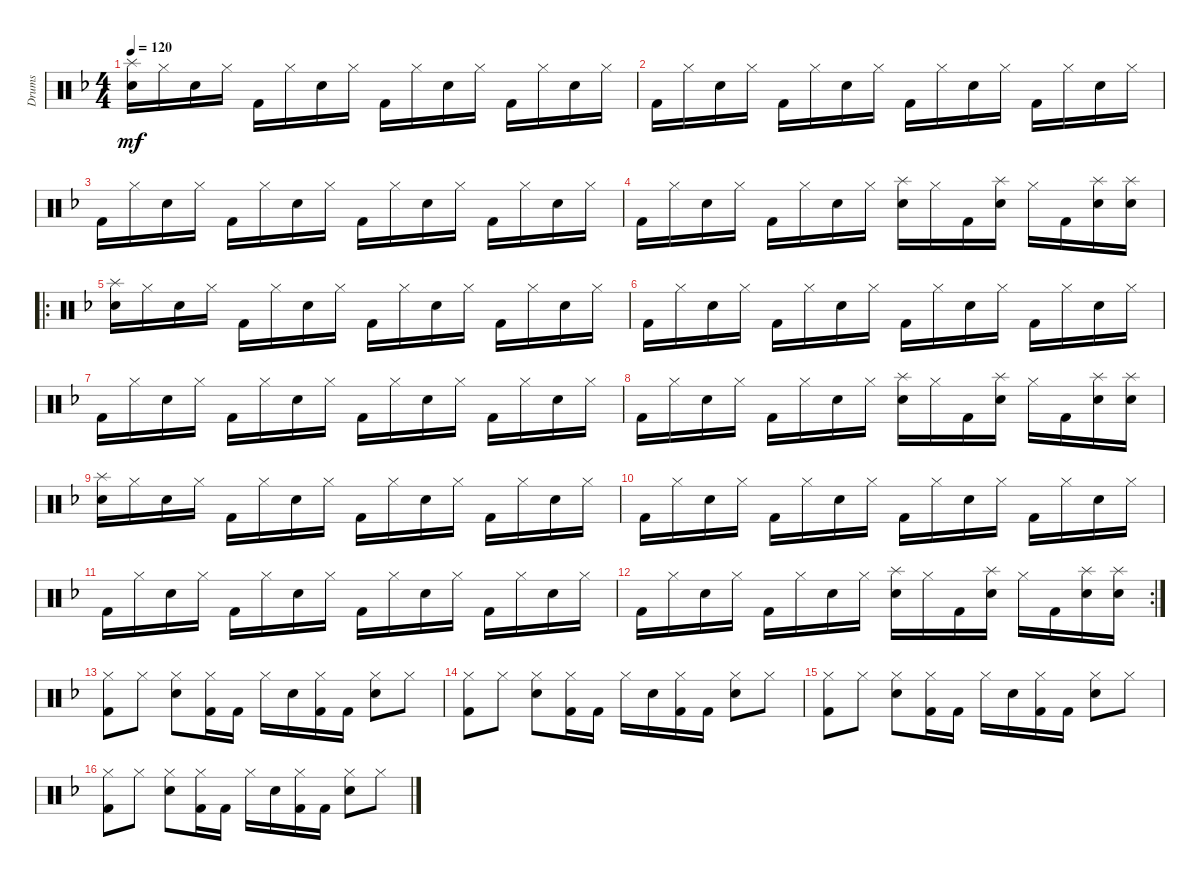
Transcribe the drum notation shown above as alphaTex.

\track ("Drums" "Drums") {instrument percussion}
\staff {score}
\articulation defaults
\ts (4 4)
\tempo 120
\clef neutral
\ks dminor
("Snare (hit) 2" "Splash (hit)").16{dy mf} "Hi-Hat (closed)".16 "Snare (hit) 2".16 "Hi-Hat (closed)".16 "Kick (hit) 2".16 "Hi-Hat (closed)".16 "Snare (hit) 2".16 "Hi-Hat (closed)".16 "Kick (hit) 2".16 "Hi-Hat (closed)".16 "Snare (hit) 2".16 "Hi-Hat (closed)".16 "Kick (hit) 2".16 "Hi-Hat (closed)".16 "Snare (hit) 2".16 "Hi-Hat (closed)".16 |
"Kick (hit) 2".16 "Hi-Hat (closed)".16 "Snare (hit) 2".16 "Hi-Hat (closed)".16 "Kick (hit) 2".16 "Hi-Hat (closed)".16 "Snare (hit) 2".16 "Hi-Hat (closed)".16 "Kick (hit) 2".16 "Hi-Hat (closed)".16 "Snare (hit) 2".16 "Hi-Hat (closed)".16 "Kick (hit) 2".16 "Hi-Hat (closed)".16 "Snare (hit) 2".16 "Hi-Hat (closed)".16 |
"Kick (hit) 2".16 "Hi-Hat (closed)".16 "Snare (hit) 2".16 "Hi-Hat (closed)".16 "Kick (hit) 2".16 "Hi-Hat (closed)".16 "Snare (hit) 2".16 "Hi-Hat (closed)".16 "Kick (hit) 2".16 "Hi-Hat (closed)".16 "Snare (hit) 2".16 "Hi-Hat (closed)".16 "Kick (hit) 2".16 "Hi-Hat (closed)".16 "Snare (hit) 2".16 "Hi-Hat (closed)".16 |
"Kick (hit) 2".16 "Hi-Hat (closed)".16 "Snare (hit) 2".16 "Hi-Hat (closed)".16 "Kick (hit) 2".16 "Hi-Hat (closed)".16 "Snare (hit) 2".16 "Hi-Hat (closed)".16 ("Snare (hit) 2" "Splash (hit)").16 "Hi-Hat (closed)".16 "Kick (hit) 2".16 ("Snare (hit) 2" "Splash (hit)").16 "Hi-Hat (closed)".16 "Kick (hit) 2".16 ("Snare (hit) 2" "Splash (hit)").16 ("Snare (hit) 2" "Splash (hit)").16 |
\ro
\section ("" "")
("Snare (hit) 2" "Splash (hit)").16 "Hi-Hat (closed)".16 "Snare (hit) 2".16 "Hi-Hat (closed)".16 "Kick (hit) 2".16 "Hi-Hat (closed)".16 "Snare (hit) 2".16 "Hi-Hat (closed)".16 "Kick (hit) 2".16 "Hi-Hat (closed)".16 "Snare (hit) 2".16 "Hi-Hat (closed)".16 "Kick (hit) 2".16 "Hi-Hat (closed)".16 "Snare (hit) 2".16 "Hi-Hat (closed)".16 |
"Kick (hit) 2".16 "Hi-Hat (closed)".16 "Snare (hit) 2".16 "Hi-Hat (closed)".16 "Kick (hit) 2".16 "Hi-Hat (closed)".16 "Snare (hit) 2".16 "Hi-Hat (closed)".16 "Kick (hit) 2".16 "Hi-Hat (closed)".16 "Snare (hit) 2".16 "Hi-Hat (closed)".16 "Kick (hit) 2".16 "Hi-Hat (closed)".16 "Snare (hit) 2".16 "Hi-Hat (closed)".16 |
"Kick (hit) 2".16 "Hi-Hat (closed)".16 "Snare (hit) 2".16 "Hi-Hat (closed)".16 "Kick (hit) 2".16 "Hi-Hat (closed)".16 "Snare (hit) 2".16 "Hi-Hat (closed)".16 "Kick (hit) 2".16 "Hi-Hat (closed)".16 "Snare (hit) 2".16 "Hi-Hat (closed)".16 "Kick (hit) 2".16 "Hi-Hat (closed)".16 "Snare (hit) 2".16 "Hi-Hat (closed)".16 |
"Kick (hit) 2".16 "Hi-Hat (closed)".16 "Snare (hit) 2".16 "Hi-Hat (closed)".16 "Kick (hit) 2".16 "Hi-Hat (closed)".16 "Snare (hit) 2".16 "Hi-Hat (closed)".16 ("Snare (hit) 2" "Splash (hit)").16 "Hi-Hat (closed)".16 "Kick (hit) 2".16 ("Snare (hit) 2" "Splash (hit)").16 "Hi-Hat (closed)".16 "Kick (hit) 2".16 ("Snare (hit) 2" "Splash (hit)").16 ("Snare (hit) 2" "Splash (hit)").16 |
("Snare (hit) 2" "Splash (hit)").16 "Hi-Hat (closed)".16 "Snare (hit) 2".16 "Hi-Hat (closed)".16 "Kick (hit) 2".16 "Hi-Hat (closed)".16 "Snare (hit) 2".16 "Hi-Hat (closed)".16 "Kick (hit) 2".16 "Hi-Hat (closed)".16 "Snare (hit) 2".16 "Hi-Hat (closed)".16 "Kick (hit) 2".16 "Hi-Hat (closed)".16 "Snare (hit) 2".16 "Hi-Hat (closed)".16 |
"Kick (hit) 2".16 "Hi-Hat (closed)".16 "Snare (hit) 2".16 "Hi-Hat (closed)".16 "Kick (hit) 2".16 "Hi-Hat (closed)".16 "Snare (hit) 2".16 "Hi-Hat (closed)".16 "Kick (hit) 2".16 "Hi-Hat (closed)".16 "Snare (hit) 2".16 "Hi-Hat (closed)".16 "Kick (hit) 2".16 "Hi-Hat (closed)".16 "Snare (hit) 2".16 "Hi-Hat (closed)".16 |
"Kick (hit) 2".16 "Hi-Hat (closed)".16 "Snare (hit) 2".16 "Hi-Hat (closed)".16 "Kick (hit) 2".16 "Hi-Hat (closed)".16 "Snare (hit) 2".16 "Hi-Hat (closed)".16 "Kick (hit) 2".16 "Hi-Hat (closed)".16 "Snare (hit) 2".16 "Hi-Hat (closed)".16 "Kick (hit) 2".16 "Hi-Hat (closed)".16 "Snare (hit) 2".16 "Hi-Hat (closed)".16 |
\rc 2 "Kick (hit) 2".16 "Hi-Hat (closed)".16 "Snare (hit) 2".16 "Hi-Hat (closed)".16 "Kick (hit) 2".16 "Hi-Hat (closed)".16 "Snare (hit) 2".16 "Hi-Hat (closed)".16
("Snare (hit) 2" "Splash (hit)").16 "Hi-Hat (closed)".16 "Kick (hit) 2".16 ("Snare (hit) 2" "Splash (hit)").16 "Hi-Hat (closed)".16 "Kick (hit) 2".16 ("Snare (hit) 2" "Splash (hit)").16 ("Snare (hit) 2" "Splash (hit)").16 |
\section ("" "")
("Kick (hit) 2" "Hi-Hat (closed)").8 "Hi-Hat (closed)".8 ("Snare (hit) 2" "Hi-Hat (closed)").8 ("Kick (hit) 2" "Hi-Hat (closed)").16 "Kick (hit) 2".16 "Hi-Hat (closed)".16 "Snare (hit) 2".16 ("Kick (hit) 2" "Hi-Hat (closed)").16 "Kick (hit) 2".16 ("Snare (hit) 2" "Hi-Hat (closed)").8 "Hi-Hat (closed)".8 |
("Kick (hit) 2" "Hi-Hat (closed)").8 "Hi-Hat (closed)".8 ("Snare (hit) 2" "Hi-Hat (closed)").8 ("Kick (hit) 2" "Hi-Hat (closed)").16 "Kick (hit) 2".16 "Hi-Hat (closed)".16 "Snare (hit) 2".16 ("Kick (hit) 2" "Hi-Hat (closed)").16 "Kick (hit) 2".16 ("Snare (hit) 2" "Hi-Hat (closed)").8 "Hi-Hat (closed)".8 |
("Kick (hit) 2" "Hi-Hat (closed)").8 "Hi-Hat (closed)".8 ("Snare (hit) 2" "Hi-Hat (closed)").8 ("Kick (hit) 2" "Hi-Hat (closed)").16 "Kick (hit) 2".16 "Hi-Hat (closed)".16 "Snare (hit) 2".16 ("Kick (hit) 2" "Hi-Hat (closed)").16 "Kick (hit) 2".16 ("Snare (hit) 2" "Hi-Hat (closed)").8 "Hi-Hat (closed)".8 |
("Kick (hit) 2" "Hi-Hat (closed)").8 "Hi-Hat (closed)".8 ("Snare (hit) 2" "Hi-Hat (closed)").8 ("Kick (hit) 2" "Hi-Hat (closed)").16 "Kick (hit) 2".16 "Hi-Hat (closed)".16 "Snare (hit) 2".16 ("Kick (hit) 2" "Hi-Hat (closed)").16 "Kick (hit) 2".16 ("Snare (hit) 2" "Hi-Hat (closed)").8 "Hi-Hat (closed)".8
